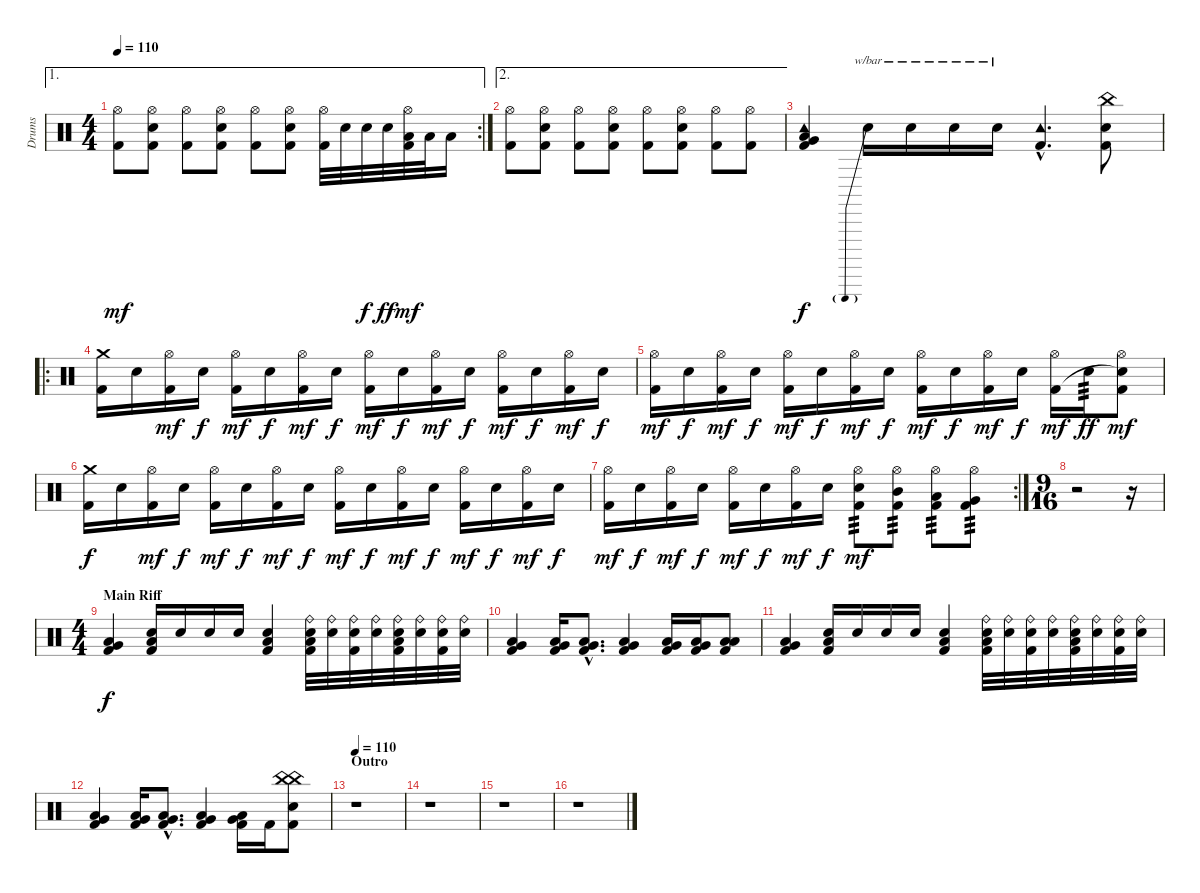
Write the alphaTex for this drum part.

\track ("Drums" "Drums") {instrument percussion}
\staff {score}
\articulation defaults
\ae 1
\rc 2
\ts (4 4)
\tempo 110
\clef neutral
\ks c
("Hi-Hat (open)" "Kick (hit) 2").8{dy mf} ("Hi-Hat (open)" "Electric Snare (hit)" "Kick (hit) 2").8 ("Hi-Hat (open)" "Kick (hit) 2").8 ("Hi-Hat (open)" "Electric Snare (hit)" "Kick (hit) 2").8 ("Hi-Hat (open)" "Kick (hit) 2").8 ("Hi-Hat (open)" "Electric Snare (hit)" "Kick (hit) 2").8 ("Hi-Hat (open)" "Kick (hit) 2").32 "Electric Snare (hit)".32 "Electric Snare (hit)".32{dy f} "Electric Snare (hit)".32{dy ff} ("Hi-Hat (open)" "Low Tom (hit)" "Kick (hit) 2").32{dy mf} "Low Tom (hit)".32 "Low Floor Tom (hit)".16 |
\ae 2
("Hi-Hat (open)" "Kick (hit) 2").8 ("Hi-Hat (open)" "Electric Snare (hit)" "Kick (hit) 2").8 ("Hi-Hat (open)" "Kick (hit) 2").8 ("Hi-Hat (open)" "Electric Snare (hit)" "Kick (hit) 2").8 ("Hi-Hat (open)" "Kick (hit) 2").8 ("Hi-Hat (open)" "Electric Snare (hit)" "Kick (hit) 2").8 ("Hi-Hat (open)" "Kick (hit) 2").8 ("Hi-Hat (open)" "Kick (hit) 2").8 |
("Tambourine (hit)" "Very Low Tom (hit)" "Low Floor Tom (hit)" "Kick (hit) 2").4{dy f} "Metronome (bell)".16{tbe (predive default 0 -24 60 -24)} "Metronome (bell)".16{tbe (hold default 0 -24 60 -24)} "Metronome (bell)".16{tbe (hold default 0 -24 60 -24)} "Metronome (bell)".16{tbe (hold default 0 -24 60 -24)} ("Tambourine (hit)"{tr (54 32) hac} "Kick (hit) 2"{tr (36 32) hac}).4{d} ("China (hit)" "Electric Snare (hit)" "Kick (hit) 2").8 |
\ro
("Crash medium (hit)" "Kick (hit) 2").16 "Electric Snare (hit)".16 ("Hi-Hat (open)" "Kick (hit) 2").16{dy mf} "Electric Snare (hit)".16{dy f} ("Hi-Hat (open)" "Kick (hit) 2").16{dy mf} "Electric Snare (hit)".16{dy f} ("Hi-Hat (open)" "Kick (hit) 2").16{dy mf} "Electric Snare (hit)".16{dy f} ("Hi-Hat (open)" "Kick (hit) 2").16{dy mf} "Electric Snare (hit)".16{dy f} ("Hi-Hat (open)" "Kick (hit) 2").16{dy mf} "Electric Snare (hit)".16{dy f} ("Hi-Hat (open)" "Kick (hit) 2").16{dy mf} "Electric Snare (hit)".16{dy f} ("Hi-Hat (open)" "Kick (hit) 2").16{dy mf} "Electric Snare (hit)".16{dy f} |
("Hi-Hat (open)" "Kick (hit) 2").16{dy mf} "Electric Snare (hit)".16{dy f} ("Hi-Hat (open)" "Kick (hit) 2").16{dy mf} "Electric Snare (hit)".16{dy f} ("Hi-Hat (open)" "Kick (hit) 2").16{dy mf} "Electric Snare (hit)".16{dy f} ("Hi-Hat (open)" "Kick (hit) 2").16{dy mf} "Electric Snare (hit)".16{dy f} ("Hi-Hat (open)" "Kick (hit) 2").16{dy mf} "Electric Snare (hit)".16{dy f} ("Hi-Hat (open)" "Kick (hit) 2").16{dy mf} "Electric Snare (hit)".16{dy f} ("Hi-Hat (open)" "Kick (hit) 2").16{dy mf} "Electric Snare (hit)".16{tp 3 dy ff} ("Hi-Hat (open)" "Electric Snare (hit)"{t} "Kick (hit) 2").8{dy mf} |
("Crash medium (hit)" "Kick (hit) 2").16{dy f} "Electric Snare (hit)".16 ("Hi-Hat (open)" "Kick (hit) 2").16{dy mf} "Electric Snare (hit)".16{dy f} ("Hi-Hat (open)" "Kick (hit) 2").16{dy mf} "Electric Snare (hit)".16{dy f} ("Hi-Hat (open)" "Kick (hit) 2").16{dy mf} "Electric Snare (hit)".16{dy f} ("Hi-Hat (open)" "Kick (hit) 2").16{dy mf} "Electric Snare (hit)".16{dy f} ("Hi-Hat (open)" "Kick (hit) 2").16{dy mf} "Electric Snare (hit)".16{dy f} ("Hi-Hat (open)" "Kick (hit) 2").16{dy mf} "Electric Snare (hit)".16{dy f} ("Hi-Hat (open)" "Kick (hit) 2").16{dy mf} "Electric Snare (hit)".16{dy f} |
\rc 2
("Hi-Hat (open)" "Kick (hit) 2").16{dy mf} "Electric Snare (hit)".16{dy f} ("Hi-Hat (open)" "Kick (hit) 2").16{dy mf} "Electric Snare (hit)".16{dy f} ("Hi-Hat (open)" "Kick (hit) 2").16{dy mf} "Electric Snare (hit)".16{dy f} ("Hi-Hat (open)" "Kick (hit) 2").16{dy mf} "Electric Snare (hit)".16{dy f} ("Hi-Hat (open)" "Electric Snare (hit)" "Kick (hit) 2").8{tp 3 dy mf} ("Hi-Hat (open)" "Mid Tom (hit)" "Kick (hit) 2").8{tp 3} ("Hi-Hat (open)" "Low Tom (hit)" "Kick (hit) 2").8{tp 3} ("Hi-Hat (open)" "Very Low Tom (hit)" "Kick (hit) 2").8{tp 3} |
\ts (9 16)
r.2 r.16 |
\ts (4 4)
\section ("" "Main Riff")
("Very Low Tom (hit)" "Low Floor Tom (hit)" "Kick (hit) 2").4{dy f} ("Low Floor Tom (hit)" "Electric Snare (hit)" "Kick (hit) 2").16 "Electric Snare (hit)".16 "Electric Snare (hit)".16 "Electric Snare (hit)".16 ("Low Floor Tom (hit)" "Electric Snare (hit)" "Kick (hit) 2").4 ("Ride (bell)" "Low Floor Tom (hit)" "Electric Snare (hit)" "Kick (hit) 2").32 ("Ride (bell)" "Electric Snare (hit)").32 ("Ride (bell)" "Electric Snare (hit)" "Kick (hit) 2").32 ("Ride (bell)" "Electric Snare (hit)").32 ("Ride (bell)" "Low Floor Tom (hit)" "Electric Snare (hit)" "Kick (hit) 2").32 ("Ride (bell)" "Electric Snare (hit)").32 ("Ride (bell)" "Electric Snare (hit)" "Kick (hit) 2").32 ("Ride (bell)" "Electric Snare (hit)").32 |
("Very Low Tom (hit)" "Low Floor Tom (hit)" "Kick (hit) 2").4 ("Very Low Tom (hit)" "Low Floor Tom (hit)" "Kick (hit) 2").16 ("Very Low Tom (hit)"{hac} "Low Floor Tom (hit)"{hac} "Kick (hit) 2"{hac}).8{d} ("Very Low Tom (hit)" "Low Floor Tom (hit)" "Kick (hit) 2").4 ("Very Low Tom (hit)" "Low Floor Tom (hit)" "Kick (hit) 2").16 ("Very Low Tom (hit)" "Low Floor Tom (hit)" "Kick (hit) 2").16 ("Low Tom (hit)" "Low Floor Tom (hit)" "Kick (hit) 2").8 |
("Very Low Tom (hit)" "Low Floor Tom (hit)" "Kick (hit) 2").4 ("Low Floor Tom (hit)" "Electric Snare (hit)" "Kick (hit) 2").16 "Electric Snare (hit)".16 "Electric Snare (hit)".16 "Electric Snare (hit)".16 ("Low Floor Tom (hit)" "Electric Snare (hit)" "Kick (hit) 2").4 ("Ride (bell)" "Low Floor Tom (hit)" "Electric Snare (hit)" "Kick (hit) 2").32 ("Ride (bell)" "Electric Snare (hit)").32 ("Ride (bell)" "Electric Snare (hit)" "Kick (hit) 2").32 ("Ride (bell)" "Electric Snare (hit)").32 ("Ride (bell)" "Low Floor Tom (hit)" "Electric Snare (hit)" "Kick (hit) 2").32 ("Ride (bell)" "Electric Snare (hit)").32 ("Ride (bell)" "Electric Snare (hit)" "Kick (hit) 2").32 ("Ride (bell)" "Electric Snare (hit)").32 |
("Very Low Tom (hit)" "Low Floor Tom (hit)" "Kick (hit) 2").4 ("Very Low Tom (hit)" "Low Floor Tom (hit)" "Kick (hit) 2").16 ("Very Low Tom (hit)"{hac} "Low Floor Tom (hit)"{hac} "Kick (hit) 2"{hac}).8{d} ("Very Low Tom (hit)" "Low Floor Tom (hit)" "Kick (hit) 2").4 ("Very Low Tom (hit)" "Low Floor Tom (hit)" "Kick (hit) 2").16 "Kick (hit) 2".16 ("China (hit)" "China (hit)" "Electric Snare (hit)" "Kick (hit) 2").8 |
\section ("" "Outro")
\tempo 110
r.1 |
r.1 |
r.1 |
r.1
